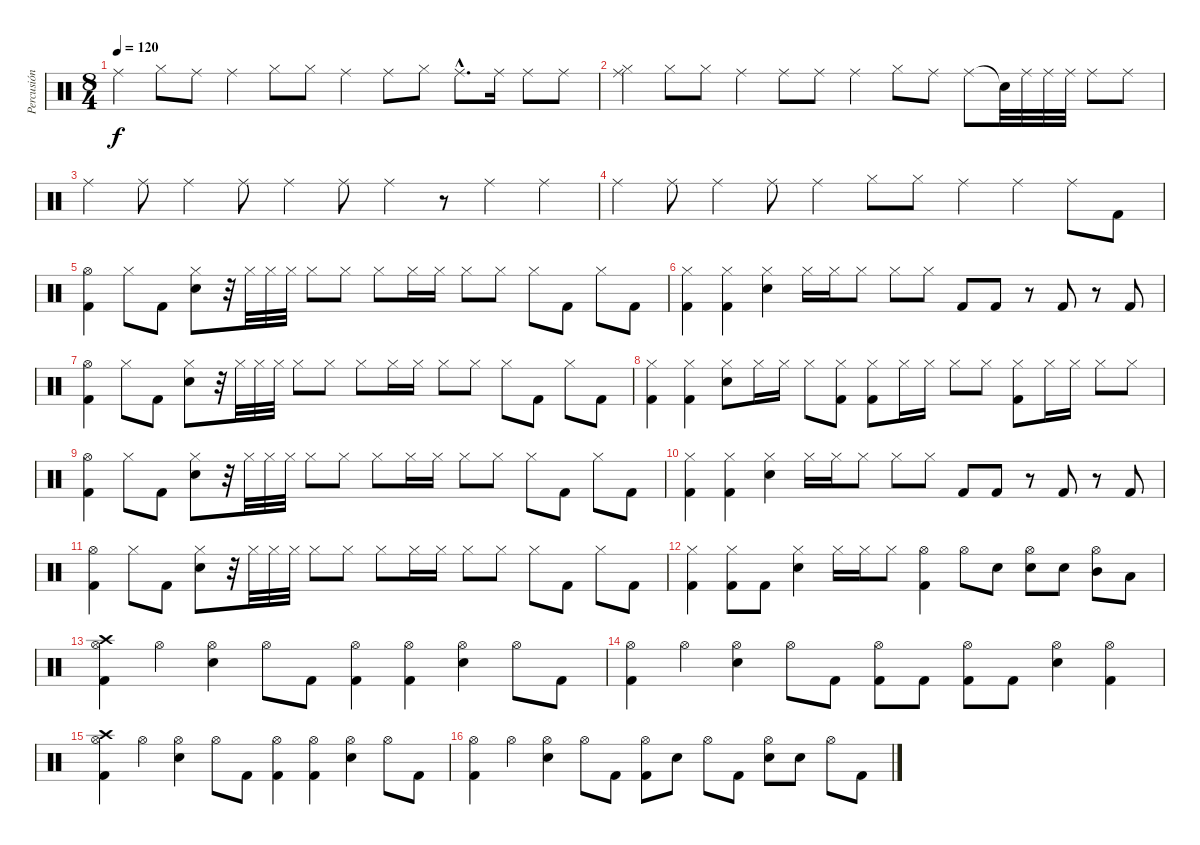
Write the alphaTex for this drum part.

\track ("Percusión" "Percusión") {instrument percussion}
\staff {score}
\articulation defaults
\ts (8 4)
\tempo 120
\clef neutral
\ks c "Ride (middle)".4{dy f volume 8} "Hi-Hat (closed)".8 "Ride (middle)".8 "Ride (middle)".4 "Hi-Hat (closed)".8 "Hi-Hat (closed)".8 "Ride (middle)".4 "Ride (middle)".8 "Hi-Hat (closed)".8 "Ride (middle)"{hac}.8{d} "Ride (middle)".16 "Ride (middle)".8 "Ride (middle)".8
|
("Hi-Hat (closed)" "Ride (middle)").4 "Hi-Hat (closed)".8 "Hi-Hat (closed)".8 "Ride (middle)".4 "Ride (middle)".8 "Ride (middle)".8 "Ride (middle)".4 "Hi-Hat (closed)".8 "Ride (middle)".8 "Ride (middle)".8 "Snare (hit)"{t}.32 "Ride (middle)".32 "Ride (middle)".32 "Ride (middle)".32 "Ride (middle)".8 "Ride (middle)".8 |
"Ride (middle)".4 "Ride (middle)".8 "Ride (middle)".4 "Ride (middle)".8 "Ride (middle)".4 "Ride (middle)".8 "Ride (middle)".4 r.8 "Ride (middle)".4 "Ride (middle)".4 |
"Ride (middle)".4 "Ride (middle)".8 "Ride (middle)".4 "Ride (middle)".8 "Ride (middle)".4 "Hi-Hat (closed)".8 "Hi-Hat (closed)".8 "Ride (middle)".4 "Ride (middle)".4 "Ride (middle)".8 "Kick (hit) 2".8{volume 13} |
("Hi-Hat (open)" "Kick (hit) 2").4 "Hi-Hat (closed)".8 "Kick (hit) 2".8 ("Hi-Hat (closed)" "Electric Snare (hit)").8 r.32 "Hi-Hat (closed)".32 "Hi-Hat (closed)".32 "Hi-Hat (closed)".32 "Hi-Hat (closed)".8 "Hi-Hat (closed)".8 "Hi-Hat (closed)".8 "Hi-Hat (closed)".16 "Hi-Hat (closed)".16 "Hi-Hat (closed)".8 "Hi-Hat (closed)".8 "Hi-Hat (closed)".8 "Kick (hit) 2".8 "Hi-Hat (closed)".8 "Kick (hit) 2".8 |
("Hi-Hat (closed)" "Kick (hit) 2").4 ("Hi-Hat (closed)" "Kick (hit) 2").4 ("Hi-Hat (closed)" "Electric Snare (hit)").4 "Hi-Hat (closed)".16 "Hi-Hat (closed)".16 "Hi-Hat (closed)".8 "Hi-Hat (closed)".8 "Hi-Hat (closed)".8 "Kick (hit) 2".8 "Kick (hit) 2".8 r.8 "Kick (hit) 2".8 r.8 "Kick (hit) 2".8 |
("Hi-Hat (open)" "Kick (hit) 2").4 "Hi-Hat (closed)".8 "Kick (hit) 2".8 ("Hi-Hat (closed)" "Electric Snare (hit)").8 r.32 "Hi-Hat (closed)".32 "Hi-Hat (closed)".32 "Hi-Hat (closed)".32 "Hi-Hat (closed)".8 "Hi-Hat (closed)".8 "Hi-Hat (closed)".8 "Hi-Hat (closed)".16 "Hi-Hat (closed)".16 "Hi-Hat (closed)".8 "Hi-Hat (closed)".8 "Hi-Hat (closed)".8 "Kick (hit) 2".8 "Hi-Hat (closed)".8 "Kick (hit) 2".8 |
("Hi-Hat (closed)" "Kick (hit) 2").4 ("Hi-Hat (closed)" "Kick (hit) 2").4 ("Hi-Hat (closed)" "Electric Snare (hit)").8 "Hi-Hat (closed)".16 "Hi-Hat (closed)".16 "Hi-Hat (closed)".8 ("Hi-Hat (closed)" "Kick (hit) 2").8 ("Hi-Hat (closed)" "Kick (hit) 2").8 "Hi-Hat (closed)".16 "Hi-Hat (closed)".16 "Hi-Hat (closed)".8 "Hi-Hat (closed)".8 ("Hi-Hat (closed)" "Kick (hit) 2").8 "Hi-Hat (closed)".16 "Hi-Hat (closed)".16 "Hi-Hat (closed)".8 "Hi-Hat (closed)".8 |
("Hi-Hat (open)" "Kick (hit) 2").4 "Hi-Hat (closed)".8 "Kick (hit) 2".8 ("Hi-Hat (closed)" "Electric Snare (hit)").8 r.32 "Hi-Hat (closed)".32 "Hi-Hat (closed)".32 "Hi-Hat (closed)".32 "Hi-Hat (closed)".8 "Hi-Hat (closed)".8 "Hi-Hat (closed)".8 "Hi-Hat (closed)".16 "Hi-Hat (closed)".16 "Hi-Hat (closed)".8 "Hi-Hat (closed)".8 "Hi-Hat (closed)".8 "Kick (hit) 2".8 "Hi-Hat (closed)".8 "Kick (hit) 2".8 |
("Hi-Hat (closed)" "Kick (hit) 2").4 ("Hi-Hat (closed)" "Kick (hit) 2").4 ("Hi-Hat (closed)" "Electric Snare (hit)").4 "Hi-Hat (closed)".16 "Hi-Hat (closed)".16 "Hi-Hat (closed)".8 "Hi-Hat (closed)".8 "Hi-Hat (closed)".8 "Kick (hit) 2".8 "Kick (hit) 2".8 r.8 "Kick (hit) 2".8 r.8 "Kick (hit) 2".8 |
("Hi-Hat (open)" "Kick (hit) 2").4 "Hi-Hat (closed)".8 "Kick (hit) 2".8 ("Hi-Hat (closed)" "Electric Snare (hit)").8 r.32 "Hi-Hat (closed)".32 "Hi-Hat (closed)".32 "Hi-Hat (closed)".32 "Hi-Hat (closed)".8 "Hi-Hat (closed)".8 "Hi-Hat (closed)".8 "Hi-Hat (closed)".16 "Hi-Hat (closed)".16 "Hi-Hat (closed)".8 "Hi-Hat (closed)".8 "Hi-Hat (closed)".8 "Kick (hit) 2".8 "Hi-Hat (closed)".8 "Kick (hit) 2".8 |
("Hi-Hat (closed)" "Kick (hit) 2").4 ("Hi-Hat (closed)" "Kick (hit) 2").8 "Kick (hit) 2".8 ("Hi-Hat (closed)" "Electric Snare (hit)").4 "Hi-Hat (closed)".16 "Hi-Hat (closed)".16 "Hi-Hat (closed)".8 ("Hi-Hat (open)" "Kick (hit) 2").4 "Hi-Hat (open)".8 "Electric Snare (hit)".8 ("Hi-Hat (open)" "Electric Snare (hit)").8 "Electric Snare (hit)".8 ("Hi-Hat (open)" "Mid Tom (hit)").8 "Low Tom (hit)".8 |
("Crash high (hit)" "Hi-Hat (open)" "Kick (hit) 2").4 "Hi-Hat (open)".4 ("Hi-Hat (open)" "Electric Snare (hit)").4 "Hi-Hat (open)".8 "Kick (hit) 2".8 ("Hi-Hat (open)" "Kick (hit) 2").4 ("Hi-Hat (open)" "Kick (hit) 2").4 ("Hi-Hat (open)" "Electric Snare (hit)").4 "Hi-Hat (open)".8 "Kick (hit) 2".8 |
("Hi-Hat (open)" "Kick (hit) 2").4 "Hi-Hat (open)".4 ("Hi-Hat (open)" "Electric Snare (hit)").4 "Hi-Hat (open)".8 "Kick (hit) 2".8 ("Hi-Hat (open)" "Kick (hit) 2").8 "Kick (hit) 2".8 ("Hi-Hat (open)" "Kick (hit) 2").8 "Kick (hit) 2".8 ("Hi-Hat (open)" "Electric Snare (hit)").4 ("Hi-Hat (open)" "Kick (hit) 2").4 |
("Crash high (hit)" "Hi-Hat (open)" "Kick (hit) 2").4 "Hi-Hat (open)".4 ("Hi-Hat (open)" "Electric Snare (hit)").4 "Hi-Hat (open)".8 "Kick (hit) 2".8 ("Hi-Hat (open)" "Kick (hit) 2").4 ("Hi-Hat (open)" "Kick (hit) 2").4 ("Hi-Hat (open)" "Electric Snare (hit)").4 "Hi-Hat (open)".8 "Kick (hit) 2".8 |
("Hi-Hat (open)" "Kick (hit) 2").4 "Hi-Hat (open)".4 ("Hi-Hat (open)" "Electric Snare (hit)").4 "Hi-Hat (open)".8 "Kick (hit) 2".8 ("Hi-Hat (open)" "Kick (hit) 2").8 "Electric Snare (hit)".8 "Hi-Hat (open)".8 "Kick (hit) 2".8 ("Hi-Hat (open)" "Electric Snare (hit)").8 "Electric Snare (hit)".8 "Hi-Hat (open)".8 "Kick (hit) 2".8
